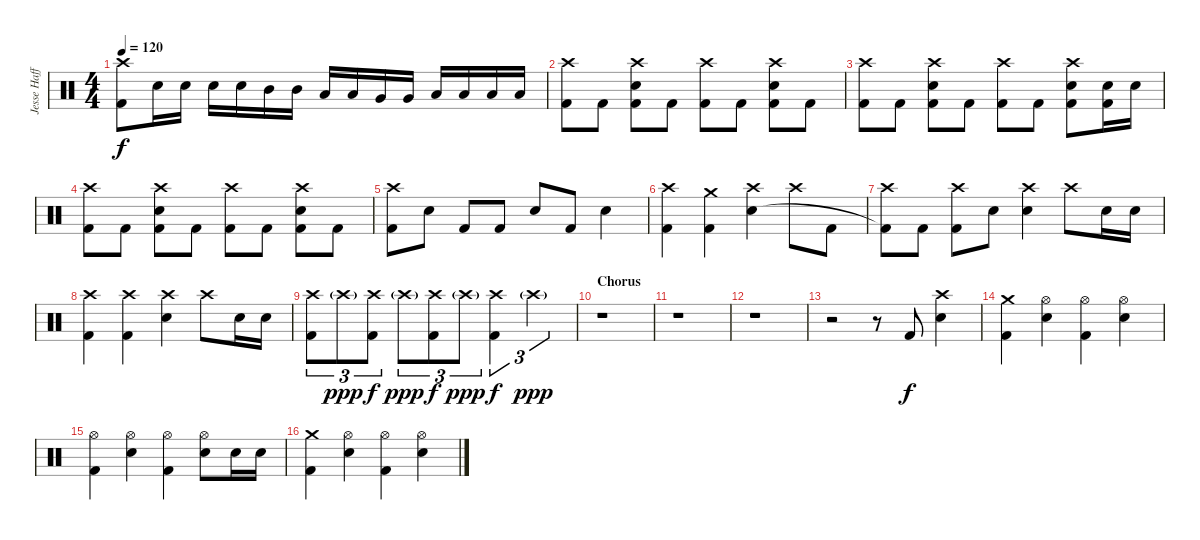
\track ("Jesse Haff" "Jesse Haff") {instrument percussion}
\staff {score}
\articulation defaults
\ts (4 4)
\tempo 120
\clef neutral
\ks c
("Crash high (hit)" "Kick (hit) 2").8{dy f} "Electric Snare (hit)".16 "Electric Snare (hit)".16 "Electric Snare (hit)".16 "Electric Snare (hit)".16 "Mid Tom (hit)".16 "Mid Tom (hit)".16 "Low Tom (hit)".16 "Low Tom (hit)".16 "Very Low Tom (hit)".16 "Very Low Tom (hit)".16 "Low Floor Tom (hit)".16 "Low Floor Tom (hit)".16 "Low Floor Tom (hit)".16 "Low Floor Tom (hit)".16 |
("Crash high (hit)" "Kick (hit) 2").8 "Kick (hit) 2".8 ("Crash high (hit)" "Electric Snare (hit)" "Kick (hit) 2").8 "Kick (hit) 2".8 ("Crash high (hit)" "Kick (hit) 2").8 "Kick (hit) 2".8 ("Crash high (hit)" "Electric Snare (hit)" "Kick (hit) 2").8 "Kick (hit) 2".8 |
("Crash high (hit)" "Kick (hit) 2").8 "Kick (hit) 2".8 ("Crash high (hit)" "Electric Snare (hit)" "Kick (hit) 2").8 "Kick (hit) 2".8 ("Crash high (hit)" "Kick (hit) 2").8 "Kick (hit) 2".8 ("Crash high (hit)" "Electric Snare (hit)" "Kick (hit) 2").8 ("Electric Snare (hit)" "Kick (hit) 2").16 "Electric Snare (hit)".16 |
("Crash high (hit)" "Kick (hit) 2").8 "Kick (hit) 2".8 ("Crash high (hit)" "Electric Snare (hit)" "Kick (hit) 2").8 "Kick (hit) 2".8 ("Crash high (hit)" "Kick (hit) 2").8 "Kick (hit) 2".8 ("Crash high (hit)" "Electric Snare (hit)" "Kick (hit) 2").8 "Kick (hit) 2".8 |
("Crash high (hit)" "Kick (hit) 2").8 "Electric Snare (hit)".8 "Kick (hit) 2".8 "Kick (hit) 2".8 "Electric Snare (hit)".8 "Kick (hit) 2".8 "Electric Snare (hit)".4 |
("Crash high (hit)" "Kick (hit) 2").4 ("Crash medium (hit)" "Kick (hit) 2").4 ("Crash high (hit)" "Electric Snare (hit)").4 "Crash high (hit)".8 "Kick (hit) 2".8 |
("Crash high (hit)" "Kick (hit) 2"{t}).8 "Kick (hit) 2".8 ("Crash high (hit)" "Kick (hit) 2").8 "Electric Snare (hit)".8 ("Crash high (hit)" "Electric Snare (hit)").4 "Crash high (hit)".8 "Electric Snare (hit)".16 "Electric Snare (hit)".16 |
("Crash high (hit)" "Kick (hit) 2").4 ("Crash high (hit)" "Kick (hit) 2").4 ("Crash high (hit)" "Electric Snare (hit)").4 "Crash high (hit)".8 "Electric Snare (hit)".16 "Electric Snare (hit)".16 |
("Crash high (hit)" "Kick (hit) 2").8{tu (3 2)} "Crash high (hit)"{g}.8{tu (3 2) dy ppp} ("Crash high (hit)" "Kick (hit) 2").8{tu (3 2) dy f} "Crash high (hit)"{g}.8{tu (3 2) dy ppp} ("Crash high (hit)" "Kick (hit) 2").8{tu (3 2) dy f} "Crash high (hit)"{g}.8{tu (3 2) dy ppp} ("Crash high (hit)" "Kick (hit) 2").4{tu (3 2) dy f} "Crash high (hit)"{g}.2{tu (3 2) dy ppp} |
\section ("" "Chorus")
r.1 |
r.1 |
r.1 |
r.2 r.8 "Kick (hit) 2".8{dy f} ("Crash high (hit)" "Electric Snare (hit)").4 |
("Crash medium (hit)" "Kick (hit) 2").4 ("Hi-Hat (open)" "Electric Snare (hit)").4 ("Hi-Hat (open)" "Kick (hit) 2").4 ("Hi-Hat (open)" "Electric Snare (hit)").4 |
("Hi-Hat (open)" "Kick (hit) 2").4 ("Hi-Hat (open)" "Electric Snare (hit)").4 ("Hi-Hat (open)" "Kick (hit) 2").4 ("Hi-Hat (open)" "Electric Snare (hit)").8 "Electric Snare (hit)".16 "Electric Snare (hit)".16 |
("Crash medium (hit)" "Kick (hit) 2").4 ("Hi-Hat (open)" "Electric Snare (hit)").4 ("Hi-Hat (open)" "Kick (hit) 2").4 ("Hi-Hat (open)" "Electric Snare (hit)").4
